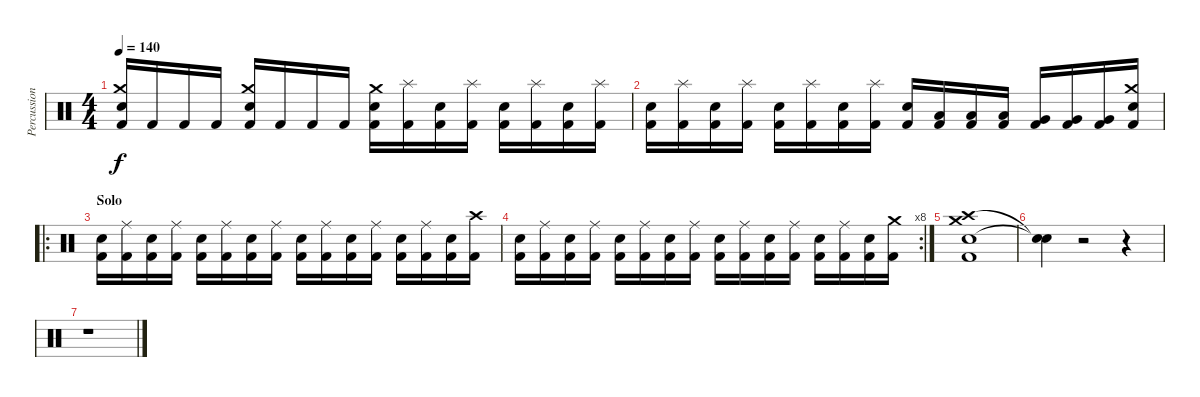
\track ("Percussion" "Percussion") {instrument percussion}
\staff {score}
\articulation defaults
\ts (4 4)
\tempo 140
\clef neutral
\ks c
("Electric Snare (hit)" "Crash medium (hit)" "Kick (hit) 2").16{dy f} "Kick (hit) 2".16 "Kick (hit) 2".16 "Kick (hit) 2".16 ("Electric Snare (hit)" "Crash medium (hit)" "Kick (hit) 2").16 "Kick (hit) 2".16 "Kick (hit) 2".16 "Kick (hit) 2".16 ("Electric Snare (hit)" "Crash medium (hit)" "Kick (hit) 2").16 ("Splash (hit)" "Kick (hit) 2").16 ("Electric Snare (hit)" "Kick (hit) 2").16 ("Splash (hit)" "Kick (hit) 2").16 ("Electric Snare (hit)" "Kick (hit) 2").16 ("Splash (hit)" "Kick (hit) 2").16 ("Electric Snare (hit)" "Kick (hit) 2").16 ("Splash (hit)" "Kick (hit) 2").16 |
("Electric Snare (hit)" "Kick (hit) 2").16 ("Splash (hit)" "Kick (hit) 2").16 ("Electric Snare (hit)" "Kick (hit) 2").16 ("Splash (hit)" "Kick (hit) 2").16 ("Electric Snare (hit)" "Kick (hit) 2").16 ("Splash (hit)" "Kick (hit) 2").16 ("Electric Snare (hit)" "Kick (hit) 2").16 ("Splash (hit)" "Kick (hit) 2").16 ("Electric Snare (hit)" "Kick (hit) 2").16 ("Low Floor Tom (hit)" "Kick (hit) 2").16 ("Low Floor Tom (hit)" "Kick (hit) 2").16 ("Low Floor Tom (hit)" "Kick (hit) 2").16 ("Very Low Tom (hit)" "Kick (hit) 2").16 ("Very Low Tom (hit)" "Kick (hit) 2").16 ("Very Low Tom (hit)" "Kick (hit) 2").16 ("Electric Snare (hit)" "Crash medium (hit)" "Kick (hit) 2").16 |
\ro
\section ("" "Solo")
("Electric Snare (hit)" "Kick (hit) 2").16 ("Ride (middle)" "Kick (hit) 2").16 ("Electric Snare (hit)" "Kick (hit) 2").16 ("Ride (middle)" "Kick (hit) 2").16 ("Electric Snare (hit)" "Kick (hit) 2").16 ("Ride (middle)" "Kick (hit) 2").16 ("Electric Snare (hit)" "Kick (hit) 2").16 ("Ride (middle)" "Kick (hit) 2").16 ("Electric Snare (hit)" "Kick (hit) 2").16 ("Ride (middle)" "Kick (hit) 2").16 ("Electric Snare (hit)" "Kick (hit) 2").16 ("Ride (middle)" "Kick (hit) 2").16 ("Electric Snare (hit)" "Kick (hit) 2").16 ("Ride (middle)" "Kick (hit) 2").16 ("Electric Snare (hit)" "Kick (hit) 2").16 ("Crash high (hit)" "Kick (hit) 2").16 |
\rc 8
("Electric Snare (hit)" "Kick (hit) 2").16 ("Ride (middle)" "Kick (hit) 2").16 ("Electric Snare (hit)" "Kick (hit) 2").16 ("Ride (middle)" "Kick (hit) 2").16 ("Electric Snare (hit)" "Kick (hit) 2").16 ("Ride (middle)" "Kick (hit) 2").16 ("Electric Snare (hit)" "Kick (hit) 2").16 ("Ride (middle)" "Kick (hit) 2").16 ("Electric Snare (hit)" "Kick (hit) 2").16 ("Ride (middle)" "Kick (hit) 2").16 ("Electric Snare (hit)" "Kick (hit) 2").16 ("Ride (middle)" "Kick (hit) 2").16 ("Electric Snare (hit)" "Kick (hit) 2").16 ("Ride (middle)" "Kick (hit) 2").16 ("Electric Snare (hit)" "Kick (hit) 2").16 ("Crash medium (hit)" "Kick (hit) 2").16 |
("Electric Snare (hit)" "Crash high (hit)" "Crash medium (hit)" "Kick (hit) 2").1 |
("Snare (hit)"{t} "Snare (hit)"{t}).4 r.2 r.4 |
r.1
